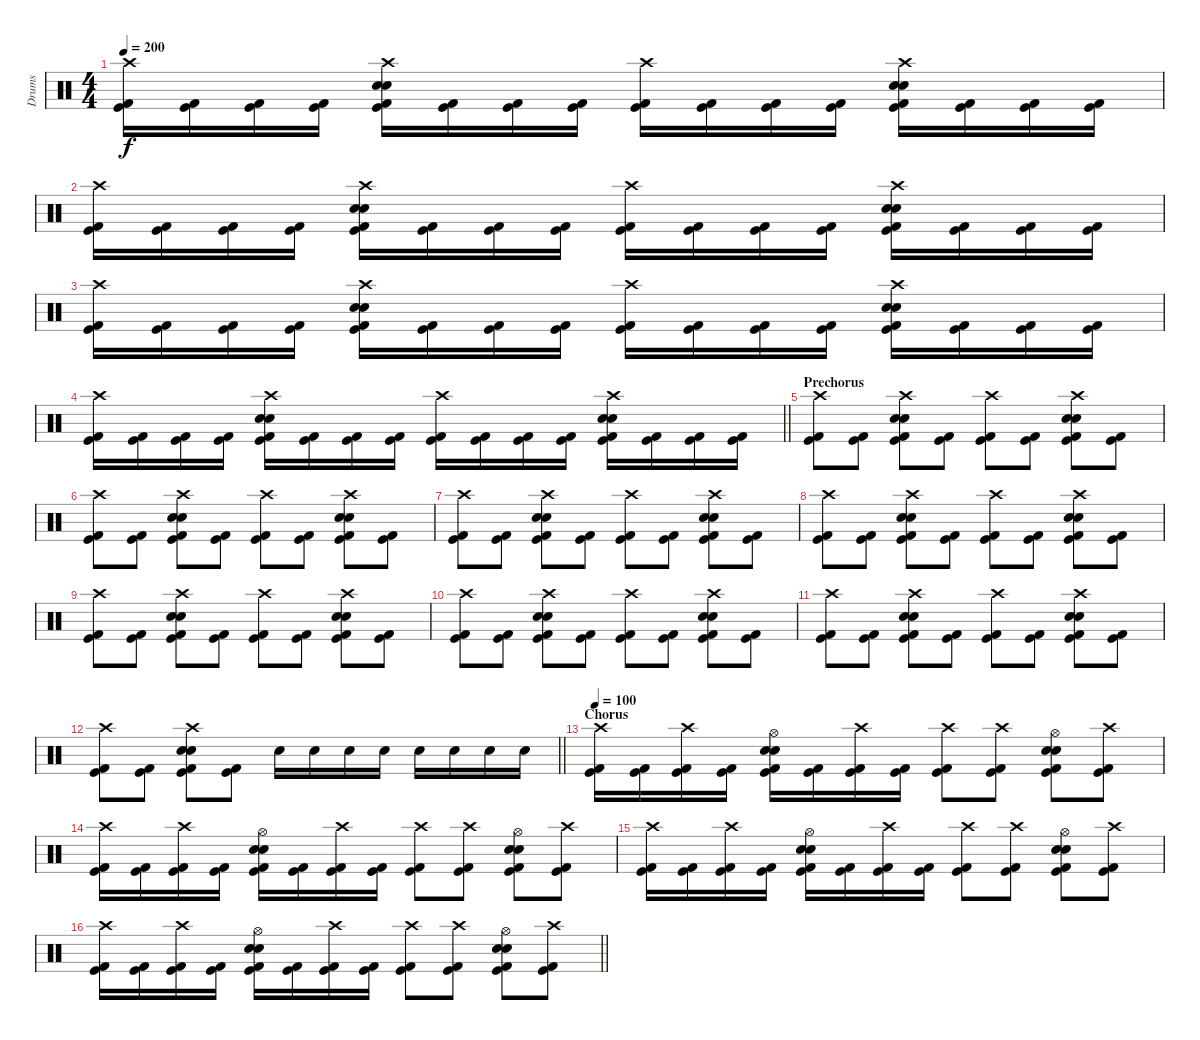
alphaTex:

\track ("Drums" "Drums") {instrument percussion}
\staff {score}
\articulation defaults
\ts (4 4)
\tempo 200
\clef neutral
\ks c
("Crash high (hit)" "Kick (hit) 2" "Kick (hit)").16{dy f} ("Kick (hit) 2" "Kick (hit)").16 ("Kick (hit) 2" "Kick (hit)").16 ("Kick (hit) 2" "Kick (hit)").16 ("Crash high (hit)" "Electric Snare (hit)" "Electric Snare (hit)" "Kick (hit) 2" "Kick (hit)").16 ("Kick (hit) 2" "Kick (hit)").16 ("Kick (hit) 2" "Kick (hit)").16 ("Kick (hit) 2" "Kick (hit)").16 ("Crash high (hit)" "Kick (hit) 2" "Kick (hit)").16 ("Kick (hit) 2" "Kick (hit)").16 ("Kick (hit) 2" "Kick (hit)").16 ("Kick (hit) 2" "Kick (hit)").16 ("Crash high (hit)" "Electric Snare (hit)" "Electric Snare (hit)" "Kick (hit) 2" "Kick (hit)").16 ("Kick (hit) 2" "Kick (hit)").16 ("Kick (hit) 2" "Kick (hit)").16 ("Kick (hit) 2" "Kick (hit)").16 |
("Crash high (hit)" "Kick (hit) 2" "Kick (hit)").16 ("Kick (hit) 2" "Kick (hit)").16 ("Kick (hit) 2" "Kick (hit)").16 ("Kick (hit) 2" "Kick (hit)").16 ("Crash high (hit)" "Electric Snare (hit)" "Electric Snare (hit)" "Kick (hit) 2" "Kick (hit)").16 ("Kick (hit) 2" "Kick (hit)").16 ("Kick (hit) 2" "Kick (hit)").16 ("Kick (hit) 2" "Kick (hit)").16 ("Crash high (hit)" "Kick (hit) 2" "Kick (hit)").16 ("Kick (hit) 2" "Kick (hit)").16 ("Kick (hit) 2" "Kick (hit)").16 ("Kick (hit) 2" "Kick (hit)").16 ("Crash high (hit)" "Electric Snare (hit)" "Electric Snare (hit)" "Kick (hit) 2" "Kick (hit)").16 ("Kick (hit) 2" "Kick (hit)").16 ("Kick (hit) 2" "Kick (hit)").16 ("Kick (hit) 2" "Kick (hit)").16 |
("Crash high (hit)" "Kick (hit) 2" "Kick (hit)").16 ("Kick (hit) 2" "Kick (hit)").16 ("Kick (hit) 2" "Kick (hit)").16 ("Kick (hit) 2" "Kick (hit)").16 ("Crash high (hit)" "Electric Snare (hit)" "Electric Snare (hit)" "Kick (hit) 2" "Kick (hit)").16 ("Kick (hit) 2" "Kick (hit)").16 ("Kick (hit) 2" "Kick (hit)").16 ("Kick (hit) 2" "Kick (hit)").16 ("Crash high (hit)" "Kick (hit) 2" "Kick (hit)").16 ("Kick (hit) 2" "Kick (hit)").16 ("Kick (hit) 2" "Kick (hit)").16 ("Kick (hit) 2" "Kick (hit)").16 ("Crash high (hit)" "Electric Snare (hit)" "Electric Snare (hit)" "Kick (hit) 2" "Kick (hit)").16 ("Kick (hit) 2" "Kick (hit)").16 ("Kick (hit) 2" "Kick (hit)").16 ("Kick (hit) 2" "Kick (hit)").16 |
\barLineRight lightlight
("Crash high (hit)" "Kick (hit) 2" "Kick (hit)").16 ("Kick (hit) 2" "Kick (hit)").16 ("Kick (hit) 2" "Kick (hit)").16 ("Kick (hit) 2" "Kick (hit)").16 ("Crash high (hit)" "Electric Snare (hit)" "Electric Snare (hit)" "Kick (hit) 2" "Kick (hit)").16 ("Kick (hit) 2" "Kick (hit)").16 ("Kick (hit) 2" "Kick (hit)").16 ("Kick (hit) 2" "Kick (hit)").16 ("Crash high (hit)" "Kick (hit) 2" "Kick (hit)").16 ("Kick (hit) 2" "Kick (hit)").16 ("Kick (hit) 2" "Kick (hit)").16 ("Kick (hit) 2" "Kick (hit)").16 ("Crash high (hit)" "Electric Snare (hit)" "Electric Snare (hit)" "Kick (hit) 2" "Kick (hit)").16 ("Kick (hit) 2" "Kick (hit)").16 ("Kick (hit) 2" "Kick (hit)").16 ("Kick (hit) 2" "Kick (hit)").16 |
\section ("" "Prechorus")
("Crash high (hit)" "Kick (hit) 2" "Kick (hit)").8 ("Kick (hit) 2" "Kick (hit)").8 ("Crash high (hit)" "Electric Snare (hit)" "Electric Snare (hit)" "Kick (hit) 2" "Kick (hit)").8 ("Kick (hit) 2" "Kick (hit)").8 ("Crash high (hit)" "Kick (hit) 2" "Kick (hit)").8 ("Kick (hit) 2" "Kick (hit)").8 ("Crash high (hit)" "Electric Snare (hit)" "Electric Snare (hit)" "Kick (hit) 2" "Kick (hit)").8 ("Kick (hit) 2" "Kick (hit)").8 |
("Crash high (hit)" "Kick (hit) 2" "Kick (hit)").8 ("Kick (hit) 2" "Kick (hit)").8 ("Crash high (hit)" "Electric Snare (hit)" "Electric Snare (hit)" "Kick (hit) 2" "Kick (hit)").8 ("Kick (hit) 2" "Kick (hit)").8 ("Crash high (hit)" "Kick (hit) 2" "Kick (hit)").8 ("Kick (hit) 2" "Kick (hit)").8 ("Crash high (hit)" "Electric Snare (hit)" "Electric Snare (hit)" "Kick (hit) 2" "Kick (hit)").8 ("Kick (hit) 2" "Kick (hit)").8 |
("Crash high (hit)" "Kick (hit) 2" "Kick (hit)").8 ("Kick (hit) 2" "Kick (hit)").8 ("Crash high (hit)" "Electric Snare (hit)" "Electric Snare (hit)" "Kick (hit) 2" "Kick (hit)").8 ("Kick (hit) 2" "Kick (hit)").8 ("Crash high (hit)" "Kick (hit) 2" "Kick (hit)").8 ("Kick (hit) 2" "Kick (hit)").8 ("Crash high (hit)" "Electric Snare (hit)" "Electric Snare (hit)" "Kick (hit) 2" "Kick (hit)").8 ("Kick (hit) 2" "Kick (hit)").8 |
("Crash high (hit)" "Kick (hit) 2" "Kick (hit)").8 ("Kick (hit) 2" "Kick (hit)").8 ("Crash high (hit)" "Electric Snare (hit)" "Electric Snare (hit)" "Kick (hit) 2" "Kick (hit)").8 ("Kick (hit) 2" "Kick (hit)").8 ("Crash high (hit)" "Kick (hit) 2" "Kick (hit)").8 ("Kick (hit) 2" "Kick (hit)").8 ("Crash high (hit)" "Electric Snare (hit)" "Electric Snare (hit)" "Kick (hit) 2" "Kick (hit)").8 ("Kick (hit) 2" "Kick (hit)").8 |
("Crash high (hit)" "Kick (hit) 2" "Kick (hit)").8 ("Kick (hit) 2" "Kick (hit)").8 ("Crash high (hit)" "Electric Snare (hit)" "Electric Snare (hit)" "Kick (hit) 2" "Kick (hit)").8 ("Kick (hit) 2" "Kick (hit)").8 ("Crash high (hit)" "Kick (hit) 2" "Kick (hit)").8 ("Kick (hit) 2" "Kick (hit)").8 ("Crash high (hit)" "Electric Snare (hit)" "Electric Snare (hit)" "Kick (hit) 2" "Kick (hit)").8 ("Kick (hit) 2" "Kick (hit)").8 |
("Crash high (hit)" "Kick (hit) 2" "Kick (hit)").8 ("Kick (hit) 2" "Kick (hit)").8 ("Crash high (hit)" "Electric Snare (hit)" "Electric Snare (hit)" "Kick (hit) 2" "Kick (hit)").8 ("Kick (hit) 2" "Kick (hit)").8 ("Crash high (hit)" "Kick (hit) 2" "Kick (hit)").8 ("Kick (hit) 2" "Kick (hit)").8 ("Crash high (hit)" "Electric Snare (hit)" "Electric Snare (hit)" "Kick (hit) 2" "Kick (hit)").8 ("Kick (hit) 2" "Kick (hit)").8 |
("Crash high (hit)" "Kick (hit) 2" "Kick (hit)").8 ("Kick (hit) 2" "Kick (hit)").8 ("Crash high (hit)" "Electric Snare (hit)" "Electric Snare (hit)" "Kick (hit) 2" "Kick (hit)").8 ("Kick (hit) 2" "Kick (hit)").8 ("Crash high (hit)" "Kick (hit) 2" "Kick (hit)").8 ("Kick (hit) 2" "Kick (hit)").8 ("Crash high (hit)" "Electric Snare (hit)" "Electric Snare (hit)" "Kick (hit) 2" "Kick (hit)").8 ("Kick (hit) 2" "Kick (hit)").8 |
\barLineRight lightlight
("Crash high (hit)" "Kick (hit) 2" "Kick (hit)").8 ("Kick (hit) 2" "Kick (hit)").8 ("Crash high (hit)" "Electric Snare (hit)" "Electric Snare (hit)" "Kick (hit) 2" "Kick (hit)").8 ("Kick (hit) 2" "Kick (hit)").8 "Electric Snare (hit)".16 "Electric Snare (hit)".16 "Electric Snare (hit)".16 "Electric Snare (hit)".16 "Electric Snare (hit)".16 "Electric Snare (hit)".16 "Electric Snare (hit)".16 "Electric Snare (hit)".16 |
\section ("" "Chorus")
\tempo 100
("Crash high (hit)" "Kick (hit) 2" "Kick (hit)").16 ("Kick (hit) 2" "Kick (hit)").16 ("Crash high (hit)" "Kick (hit) 2" "Kick (hit)").16 ("Kick (hit) 2" "Kick (hit)").16 ("Hi-Hat (open)" "Electric Snare (hit)" "Electric Snare (hit)" "Kick (hit) 2" "Kick (hit)").16 ("Kick (hit) 2" "Kick (hit)").16 ("Crash high (hit)" "Kick (hit) 2" "Kick (hit)").16 ("Kick (hit) 2" "Kick (hit)").16 ("Crash high (hit)" "Kick (hit) 2" "Kick (hit)").8 ("Crash high (hit)" "Kick (hit) 2" "Kick (hit)").8 ("Hi-Hat (open)" "Electric Snare (hit)" "Electric Snare (hit)" "Kick (hit) 2" "Kick (hit)").8 ("Crash high (hit)" "Kick (hit) 2" "Kick (hit)").8 |
("Crash high (hit)" "Kick (hit) 2" "Kick (hit)").16 ("Kick (hit) 2" "Kick (hit)").16 ("Crash high (hit)" "Kick (hit) 2" "Kick (hit)").16 ("Kick (hit) 2" "Kick (hit)").16 ("Hi-Hat (open)" "Electric Snare (hit)" "Electric Snare (hit)" "Kick (hit) 2" "Kick (hit)").16 ("Kick (hit) 2" "Kick (hit)").16 ("Crash high (hit)" "Kick (hit) 2" "Kick (hit)").16 ("Kick (hit) 2" "Kick (hit)").16 ("Crash high (hit)" "Kick (hit) 2" "Kick (hit)").8 ("Crash high (hit)" "Kick (hit) 2" "Kick (hit)").8 ("Hi-Hat (open)" "Electric Snare (hit)" "Electric Snare (hit)" "Kick (hit) 2" "Kick (hit)").8 ("Crash high (hit)" "Kick (hit) 2" "Kick (hit)").8 |
("Crash high (hit)" "Kick (hit) 2" "Kick (hit)").16 ("Kick (hit) 2" "Kick (hit)").16 ("Crash high (hit)" "Kick (hit) 2" "Kick (hit)").16 ("Kick (hit) 2" "Kick (hit)").16 ("Hi-Hat (open)" "Electric Snare (hit)" "Electric Snare (hit)" "Kick (hit) 2" "Kick (hit)").16 ("Kick (hit) 2" "Kick (hit)").16 ("Crash high (hit)" "Kick (hit) 2" "Kick (hit)").16 ("Kick (hit) 2" "Kick (hit)").16 ("Crash high (hit)" "Kick (hit) 2" "Kick (hit)").8 ("Crash high (hit)" "Kick (hit) 2" "Kick (hit)").8 ("Hi-Hat (open)" "Electric Snare (hit)" "Electric Snare (hit)" "Kick (hit) 2" "Kick (hit)").8 ("Crash high (hit)" "Kick (hit) 2" "Kick (hit)").8 |
\barLineRight lightlight
("Crash high (hit)" "Kick (hit) 2" "Kick (hit)").16 ("Kick (hit) 2" "Kick (hit)").16 ("Crash high (hit)" "Kick (hit) 2" "Kick (hit)").16 ("Kick (hit) 2" "Kick (hit)").16 ("Hi-Hat (open)" "Electric Snare (hit)" "Electric Snare (hit)" "Kick (hit) 2" "Kick (hit)").16 ("Kick (hit) 2" "Kick (hit)").16 ("Crash high (hit)" "Kick (hit) 2" "Kick (hit)").16 ("Kick (hit) 2" "Kick (hit)").16 ("Crash high (hit)" "Kick (hit) 2" "Kick (hit)").8 ("Crash high (hit)" "Kick (hit) 2" "Kick (hit)").8 ("Hi-Hat (open)" "Electric Snare (hit)" "Electric Snare (hit)" "Kick (hit) 2" "Kick (hit)").8 ("Crash high (hit)" "Kick (hit) 2" "Kick (hit)").8
